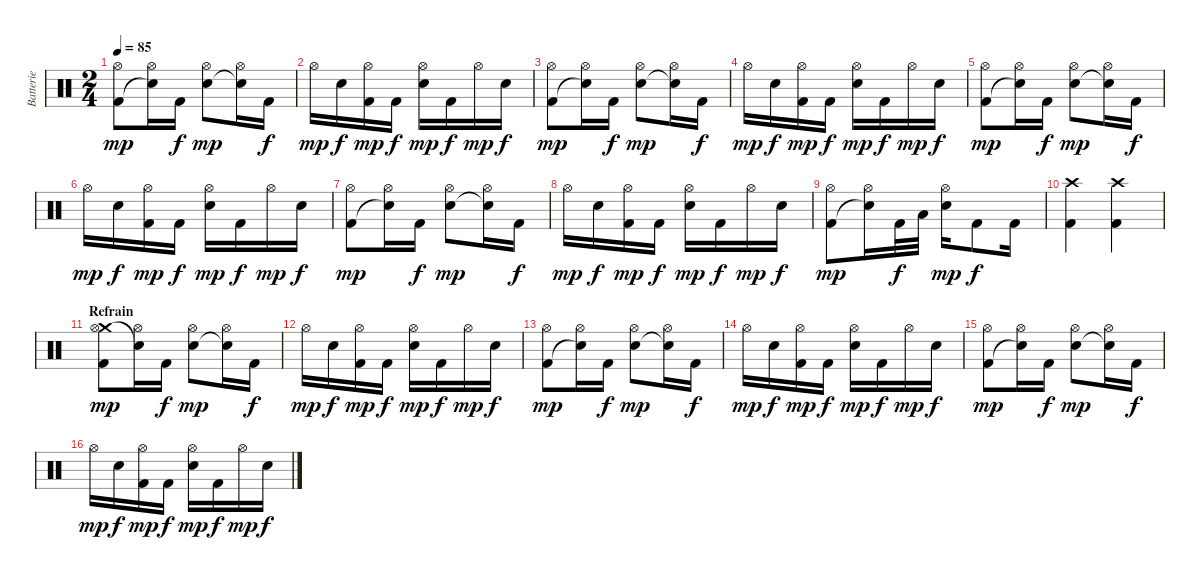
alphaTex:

\track ("Batterie" "Batterie") {instrument percussion}
\staff {score}
\articulation defaults
\ts (2 4)
\tempo 85
\clef neutral
\ks c
("Hi-Hat (open)" "Kick (hit) 2").8{dy mp} ("Hi-Hat (open)" "Snare (hit)"{t}).16 "Kick (hit) 2".16{dy f} ("Electric Snare (hit)" "Hi-Hat (open)").8{dy mp} ("Snare (hit)"{t} "Hi-Hat (open)").16 "Kick (hit) 2".16{dy f} |
"Hi-Hat (open)".16{dy mp} "Electric Snare (hit)".16{dy f} ("Hi-Hat (open)" "Kick (hit) 2").16{dy mp} "Kick (hit) 2".16{dy f} ("Electric Snare (hit)" "Hi-Hat (open)").16{dy mp} "Kick (hit) 2".16{dy f} "Hi-Hat (open)".16{dy mp} "Electric Snare (hit)".16{dy f} |
("Hi-Hat (open)" "Kick (hit) 2").8{dy mp} ("Hi-Hat (open)" "Snare (hit)"{t}).16 "Kick (hit) 2".16{dy f} ("Electric Snare (hit)" "Hi-Hat (open)").8{dy mp} ("Snare (hit)"{t} "Hi-Hat (open)").16 "Kick (hit) 2".16{dy f} |
"Hi-Hat (open)".16{dy mp} "Electric Snare (hit)".16{dy f} ("Hi-Hat (open)" "Kick (hit) 2").16{dy mp} "Kick (hit) 2".16{dy f} ("Electric Snare (hit)" "Hi-Hat (open)").16{dy mp} "Kick (hit) 2".16{dy f} "Hi-Hat (open)".16{dy mp} "Electric Snare (hit)".16{dy f} |
("Hi-Hat (open)" "Kick (hit) 2").8{dy mp} ("Hi-Hat (open)" "Snare (hit)"{t}).16 "Kick (hit) 2".16{dy f} ("Electric Snare (hit)" "Hi-Hat (open)").8{dy mp} ("Snare (hit)"{t} "Hi-Hat (open)").16 "Kick (hit) 2".16{dy f} |
"Hi-Hat (open)".16{dy mp} "Electric Snare (hit)".16{dy f} ("Hi-Hat (open)" "Kick (hit) 2").16{dy mp} "Kick (hit) 2".16{dy f} ("Electric Snare (hit)" "Hi-Hat (open)").16{dy mp} "Kick (hit) 2".16{dy f} "Hi-Hat (open)".16{dy mp} "Electric Snare (hit)".16{dy f} |
("Hi-Hat (open)" "Kick (hit) 2").8{dy mp} ("Hi-Hat (open)" "Snare (hit)"{t}).16 "Kick (hit) 2".16{dy f} ("Electric Snare (hit)" "Hi-Hat (open)").8{dy mp} ("Snare (hit)"{t} "Hi-Hat (open)").16 "Kick (hit) 2".16{dy f} |
"Hi-Hat (open)".16{dy mp} "Electric Snare (hit)".16{dy f} ("Hi-Hat (open)" "Kick (hit) 2").16{dy mp} "Kick (hit) 2".16{dy f} ("Electric Snare (hit)" "Hi-Hat (open)").16{dy mp} "Kick (hit) 2".16{dy f} "Hi-Hat (open)".16{dy mp} "Electric Snare (hit)".16{dy f} |
("Hi-Hat (open)" "Kick (hit) 2").8{dy mp} ("Hi-Hat (open)" "Snare (hit)"{t}).16 "Kick (hit) 2".32{dy f} "Low Tom (hit)".32 ("Electric Snare (hit)" "Hi-Hat (open)").16{dy mp} "Kick (hit) 2".8{dy f} "Kick (hit) 2".16 |
("Crash high (hit)" "Kick (hit) 2").4 ("Crash high (hit)" "Kick (hit) 2").4 |
\section ("" "Refrain")
("Crash medium (hit)" "Hi-Hat (open)" "Kick (hit) 2").8{dy mp} ("Hi-Hat (open)" "Snare (hit)"{t}).16 "Kick (hit) 2".16{dy f} ("Electric Snare (hit)" "Hi-Hat (open)").8{dy mp} ("Snare (hit)"{t} "Hi-Hat (open)").16 "Kick (hit) 2".16{dy f} |
"Hi-Hat (open)".16{dy mp} "Electric Snare (hit)".16{dy f} ("Hi-Hat (open)" "Kick (hit) 2").16{dy mp} "Kick (hit) 2".16{dy f} ("Electric Snare (hit)" "Hi-Hat (open)").16{dy mp} "Kick (hit) 2".16{dy f} "Hi-Hat (open)".16{dy mp} "Electric Snare (hit)".16{dy f} |
("Hi-Hat (open)" "Kick (hit) 2").8{dy mp} ("Hi-Hat (open)" "Snare (hit)"{t}).16 "Kick (hit) 2".16{dy f} ("Electric Snare (hit)" "Hi-Hat (open)").8{dy mp} ("Snare (hit)"{t} "Hi-Hat (open)").16 "Kick (hit) 2".16{dy f} |
"Hi-Hat (open)".16{dy mp} "Electric Snare (hit)".16{dy f} ("Hi-Hat (open)" "Kick (hit) 2").16{dy mp} "Kick (hit) 2".16{dy f} ("Electric Snare (hit)" "Hi-Hat (open)").16{dy mp} "Kick (hit) 2".16{dy f} "Hi-Hat (open)".16{dy mp} "Electric Snare (hit)".16{dy f} |
("Hi-Hat (open)" "Kick (hit) 2").8{dy mp} ("Hi-Hat (open)" "Snare (hit)"{t}).16 "Kick (hit) 2".16{dy f} ("Electric Snare (hit)" "Hi-Hat (open)").8{dy mp} ("Snare (hit)"{t} "Hi-Hat (open)").16 "Kick (hit) 2".16{dy f} |
"Hi-Hat (open)".16{dy mp} "Electric Snare (hit)".16{dy f} ("Hi-Hat (open)" "Kick (hit) 2").16{dy mp} "Kick (hit) 2".16{dy f} ("Electric Snare (hit)" "Hi-Hat (open)").16{dy mp} "Kick (hit) 2".16{dy f} "Hi-Hat (open)".16{dy mp} "Electric Snare (hit)".16{dy f}
